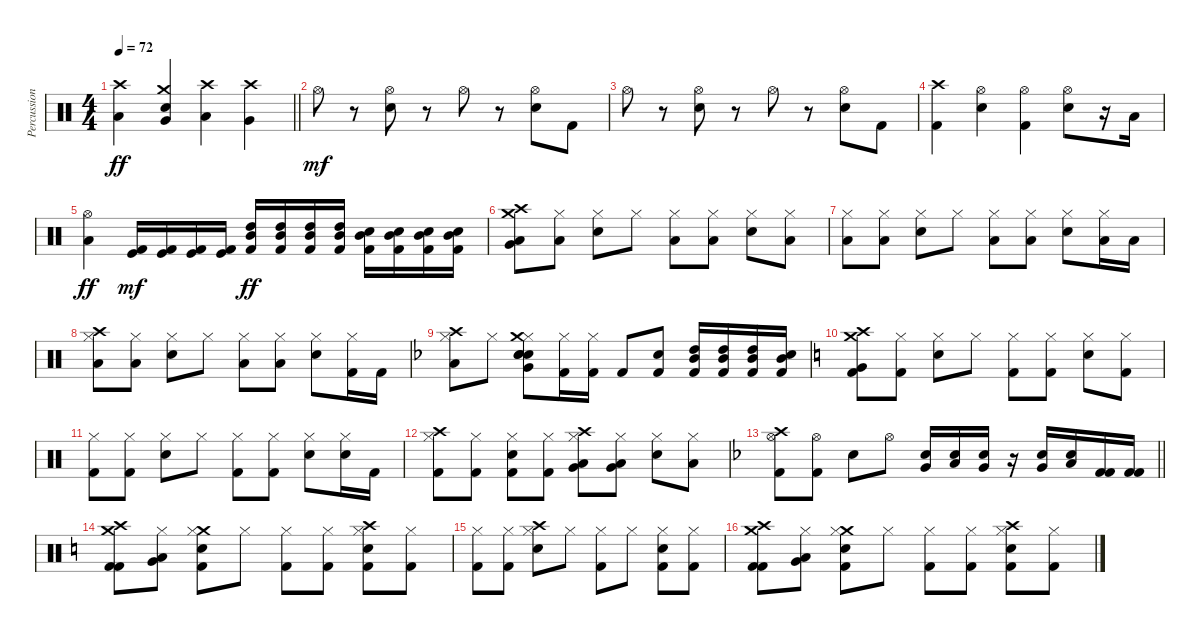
\track ("Percussion" "Percussion") {instrument percussion}
\staff {score}
\articulation defaults
\ts (4 4)
\tempo 72
\clef neutral
\barLineRight lightlight
\ks c
("Crash high (hit)" "Low Floor Tom (hit)").4{dy ff} ("Snare (hit) 2" "Crash medium (hit)" "Very Low Tom (hit)").4 ("Crash high (hit)" "Low Floor Tom (hit)").4 ("Crash high (hit)" "Very Low Tom (hit)").4 |
"Hi-Hat (open)".8{dy mf} r.8 ("Hi-Hat (open)" "Snare (hit) 2").8 r.8 "Hi-Hat (open)".8 r.8 ("Hi-Hat (open)" "Snare (hit) 2").8 "Kick (hit) 2".8 |
"Hi-Hat (open)".8 r.8 ("Hi-Hat (open)" "Snare (hit) 2").8 r.8 "Hi-Hat (open)".8 r.8 ("Hi-Hat (open)" "Snare (hit) 2").8 "Kick (hit) 2".8 |
("Crash high (hit)" "Kick (hit) 2").4 ("Snare (hit) 2" "Hi-Hat (open)").4 ("Hi-Hat (open)" "Kick (hit) 2").4 ("Hi-Hat (open)" "Snare (hit) 2").8 r.16 "Low Floor Tom (hit)".16 |
("Hi-Hat (open)" "Low Floor Tom (hit)").4{dy ff} ("Kick (hit) 2" "Kick (hit)").16{dy mf} ("Kick (hit) 2" "Kick (hit)").16 ("Kick (hit) 2" "Kick (hit)").16 ("Kick (hit) 2" "Kick (hit)").16 ("Kick (hit) 2" "Mid Tom (hit)" "High Tom (hit)").16{dy ff} ("Kick (hit) 2" "Mid Tom (hit)" "High Tom (hit)").16 ("Kick (hit) 2" "High Tom (hit)" "Mid Tom (hit)").16 ("Kick (hit) 2" "Mid Tom (hit)" "High Tom (hit)").16 ("Kick (hit) 2" "Snare (hit) 2" "Mid Tom (hit)").16 ("Kick (hit) 2" "Snare (hit) 2" "Mid Tom (hit)").16 ("Kick (hit) 2" "Snare (hit) 2" "Mid Tom (hit)").16 ("Kick (hit) 2" "Snare (hit) 2" "Mid Tom (hit)").16 |
("Crash medium (hit)" "Crash high (hit)" "Low Floor Tom (hit)" "Very Low Tom (hit)").8 ("Hi-Hat (closed)" "Low Floor Tom (hit)").8 ("Hi-Hat (closed)" "Snare (hit) 2").8 "Hi-Hat (closed)".8 ("Hi-Hat (closed)" "Low Floor Tom (hit)").8 ("Hi-Hat (closed)" "Low Floor Tom (hit)").8 ("Hi-Hat (closed)" "Snare (hit) 2").8 ("Hi-Hat (closed)" "Low Floor Tom (hit)").8 |
("Hi-Hat (closed)" "Low Floor Tom (hit)").8 ("Hi-Hat (closed)" "Low Floor Tom (hit)").8 ("Hi-Hat (closed)" "Snare (hit) 2").8 "Hi-Hat (closed)".8 ("Hi-Hat (closed)" "Low Floor Tom (hit)").8 ("Hi-Hat (closed)" "Low Floor Tom (hit)").8 ("Hi-Hat (closed)" "Snare (hit) 2").8 ("Hi-Hat (closed)" "Low Floor Tom (hit)").16 "Low Floor Tom (hit)".16 |
("Hi-Hat (closed)" "Crash high (hit)" "Low Floor Tom (hit)").8 ("Hi-Hat (closed)" "Low Floor Tom (hit)").8 ("Hi-Hat (closed)" "Snare (hit) 2").8 "Hi-Hat (closed)".8 ("Hi-Hat (closed)" "Low Floor Tom (hit)").8 ("Hi-Hat (closed)" "Low Floor Tom (hit)").8 ("Hi-Hat (closed)" "Snare (hit) 2").8 ("Hi-Hat (closed)" "Kick (hit) 2").16 "Kick (hit) 2".16 |
\ks f
("Hi-Hat (closed)" "Crash high (hit)" "Low Floor Tom (hit)").8 "Hi-Hat (closed)".8 ("Hand Clap (hit)" "Electric Snare (hit)" "Hi-Hat (closed)" "Crash medium (hit)" "Very Low Tom (hit)" "Snare (hit) 2").8 ("Hi-Hat (closed)" "Kick (hit) 2").16 ("Hi-Hat (closed)" "Kick (hit) 2").16 "Kick (hit) 2".8 ("Snare (hit) 2" "Kick (hit) 2").8 ("Kick (hit) 2" "Mid Tom (hit)" "High Tom (hit)").16 ("Kick (hit) 2" "High Tom (hit)" "Mid Tom (hit)").16 ("Kick (hit) 2" "Mid Tom (hit)" "High Tom (hit)").16 ("Kick (hit) 2" "Snare (hit) 2" "Mid Tom (hit)").16 |
\ks c
("Crash medium (hit)" "Crash high (hit)" "Kick (hit) 2" "Very Low Tom (hit)").8 ("Hi-Hat (closed)" "Kick (hit) 2").8 ("Hi-Hat (closed)" "Snare (hit) 2").8 "Hi-Hat (closed)".8 ("Hi-Hat (closed)" "Kick (hit) 2").8 ("Hi-Hat (closed)" "Kick (hit) 2").8 ("Hi-Hat (closed)" "Snare (hit) 2").8 ("Hi-Hat (closed)" "Kick (hit) 2").8 |
("Hi-Hat (closed)" "Kick (hit) 2").8 ("Hi-Hat (closed)" "Kick (hit) 2").8 ("Hi-Hat (closed)" "Snare (hit) 2").8 "Hi-Hat (closed)".8 ("Hi-Hat (closed)" "Kick (hit) 2").8 ("Hi-Hat (closed)" "Kick (hit) 2").8 ("Hi-Hat (closed)" "Snare (hit) 2").8 ("Hi-Hat (closed)" "Snare (hit) 2").16 "Kick (hit) 2".16 |
("Hi-Hat (closed)" "Crash high (hit)" "Kick (hit) 2").8 ("Hi-Hat (closed)" "Kick (hit) 2").8 ("Hi-Hat (closed)" "Snare (hit) 2" "Kick (hit) 2").8 ("Hi-Hat (closed)" "Kick (hit) 2").8 ("Crash high (hit)" "Hi-Hat (closed)" "Low Floor Tom (hit)" "Very Low Tom (hit)").8 ("Hi-Hat (closed)" "Low Floor Tom (hit)" "Very Low Tom (hit)").8 ("Hi-Hat (closed)" "Snare (hit) 2").8 ("Hi-Hat (closed)" "Low Floor Tom (hit)").8 |
\barLineRight lightlight
\ks f
("Crash high (hit)" "Kick (hit) 2" "Hi-Hat (open)").8 ("Hi-Hat (open)" "Kick (hit) 2").8 "Snare (hit) 2".8 "Hi-Hat (open)".8 ("Electric Snare (hit)" "Very Low Tom (hit)").16 ("Electric Snare (hit)" "Low Floor Tom (hit)").16 ("Electric Snare (hit)" "Very Low Tom (hit)").16 r.16 ("Electric Snare (hit)" "Very Low Tom (hit)").16 ("Electric Snare (hit)" "Low Floor Tom (hit)").16 ("Kick (hit) 2" "Kick (hit) 2").16 ("Kick (hit) 2" "Kick (hit) 2").16 |
\ks c
("Kick (hit) 2" "Kick (hit) 2" "Crash high (hit)" "Crash medium (hit)").8 ("Hi-Hat (closed)" "Low Floor Tom (hit)" "Very Low Tom (hit)").8 ("Crash medium (hit)" "Hi-Hat (closed)" "Snare (hit) 2" "Kick (hit) 2").8 "Hi-Hat (closed)".8 ("Hi-Hat (closed)" "Kick (hit) 2").8 ("Hi-Hat (closed)" "Kick (hit) 2").8 ("Crash high (hit)" "Hi-Hat (closed)" "Snare (hit) 2" "Kick (hit) 2").8 ("Hi-Hat (closed)" "Kick (hit) 2").8 |
("Hi-Hat (closed)" "Kick (hit) 2").8 ("Hi-Hat (closed)" "Kick (hit) 2").8 ("Crash high (hit)" "Hi-Hat (closed)" "Snare (hit) 2").8 "Hi-Hat (closed)".8 ("Hi-Hat (closed)" "Kick (hit) 2").8 "Hi-Hat (closed)".8 ("Hi-Hat (closed)" "Snare (hit) 2" "Kick (hit) 2").8 ("Hi-Hat (closed)" "Kick (hit) 2").8 |
("Crash medium (hit)" "Crash high (hit)" "Kick (hit) 2" "Kick (hit) 2").8 ("Hi-Hat (closed)" "Low Floor Tom (hit)" "Very Low Tom (hit)").8 ("Crash medium (hit)" "Hi-Hat (closed)" "Snare (hit) 2" "Kick (hit) 2").8 "Hi-Hat (closed)".8 ("Hi-Hat (closed)" "Kick (hit) 2").8 ("Hi-Hat (closed)" "Kick (hit) 2").8 ("Crash high (hit)" "Hi-Hat (closed)" "Snare (hit) 2" "Kick (hit) 2").8 ("Hi-Hat (closed)" "Kick (hit) 2").8
